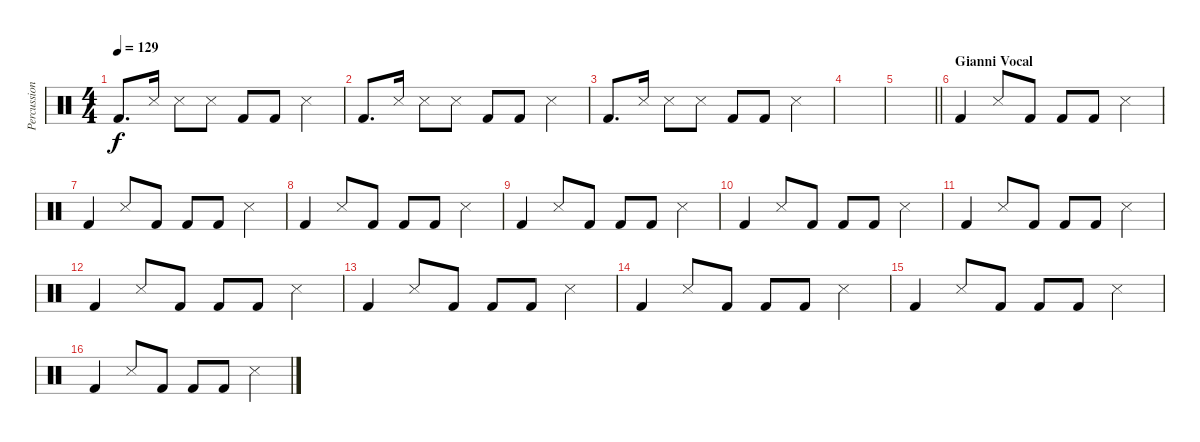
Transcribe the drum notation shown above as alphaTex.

\track ("Percussion (Joel)" "Percussion") {instrument percussion}
\staff {score}
\articulation defaults
\ts (4 4)
\tempo 129
\clef neutral
\ks c "Kick (hit) 2".8{d dy f} "Snare (side stick) 3".16 "Snare (side stick) 3".8 "Snare (side stick) 3".8 "Kick (hit) 2".8 "Kick (hit) 2".8 "Snare (side stick) 3".4
|
"Kick (hit) 2".8{d} "Snare (side stick) 3".16 "Snare (side stick) 3".8 "Snare (side stick) 3".8 "Kick (hit) 2".8 "Kick (hit) 2".8 "Snare (side stick) 3".4 |
"Kick (hit) 2".8{d} "Snare (side stick) 3".16 "Snare (side stick) 3".8 "Snare (side stick) 3".8 "Kick (hit) 2".8 "Kick (hit) 2".8 "Snare (side stick) 3".4 |
|
\barLineRight lightlight
|
\section ("" "Gianni Vocal")
"Kick (hit) 2".4 "Snare (side stick) 3".8 "Kick (hit) 2".8 "Kick (hit) 2".8 "Kick (hit) 2".8 "Snare (side stick) 3".4 |
"Kick (hit) 2".4 "Snare (side stick) 3".8 "Kick (hit) 2".8 "Kick (hit) 2".8 "Kick (hit) 2".8 "Snare (side stick) 3".4 |
"Kick (hit) 2".4 "Snare (side stick) 3".8 "Kick (hit) 2".8 "Kick (hit) 2".8 "Kick (hit) 2".8 "Snare (side stick) 3".4 |
"Kick (hit) 2".4 "Snare (side stick) 3".8 "Kick (hit) 2".8 "Kick (hit) 2".8 "Kick (hit) 2".8 "Snare (side stick) 3".4 |
"Kick (hit) 2".4 "Snare (side stick) 3".8 "Kick (hit) 2".8 "Kick (hit) 2".8 "Kick (hit) 2".8 "Snare (side stick) 3".4 |
"Kick (hit) 2".4 "Snare (side stick) 3".8 "Kick (hit) 2".8 "Kick (hit) 2".8 "Kick (hit) 2".8 "Snare (side stick) 3".4 |
"Kick (hit) 2".4 "Snare (side stick) 3".8 "Kick (hit) 2".8 "Kick (hit) 2".8 "Kick (hit) 2".8 "Snare (side stick) 3".4 |
"Kick (hit) 2".4 "Snare (side stick) 3".8 "Kick (hit) 2".8 "Kick (hit) 2".8 "Kick (hit) 2".8 "Snare (side stick) 3".4 |
"Kick (hit) 2".4 "Snare (side stick) 3".8 "Kick (hit) 2".8 "Kick (hit) 2".8 "Kick (hit) 2".8 "Snare (side stick) 3".4 |
"Kick (hit) 2".4 "Snare (side stick) 3".8 "Kick (hit) 2".8 "Kick (hit) 2".8 "Kick (hit) 2".8 "Snare (side stick) 3".4 |
"Kick (hit) 2".4 "Snare (side stick) 3".8 "Kick (hit) 2".8 "Kick (hit) 2".8 "Kick (hit) 2".8 "Snare (side stick) 3".4
